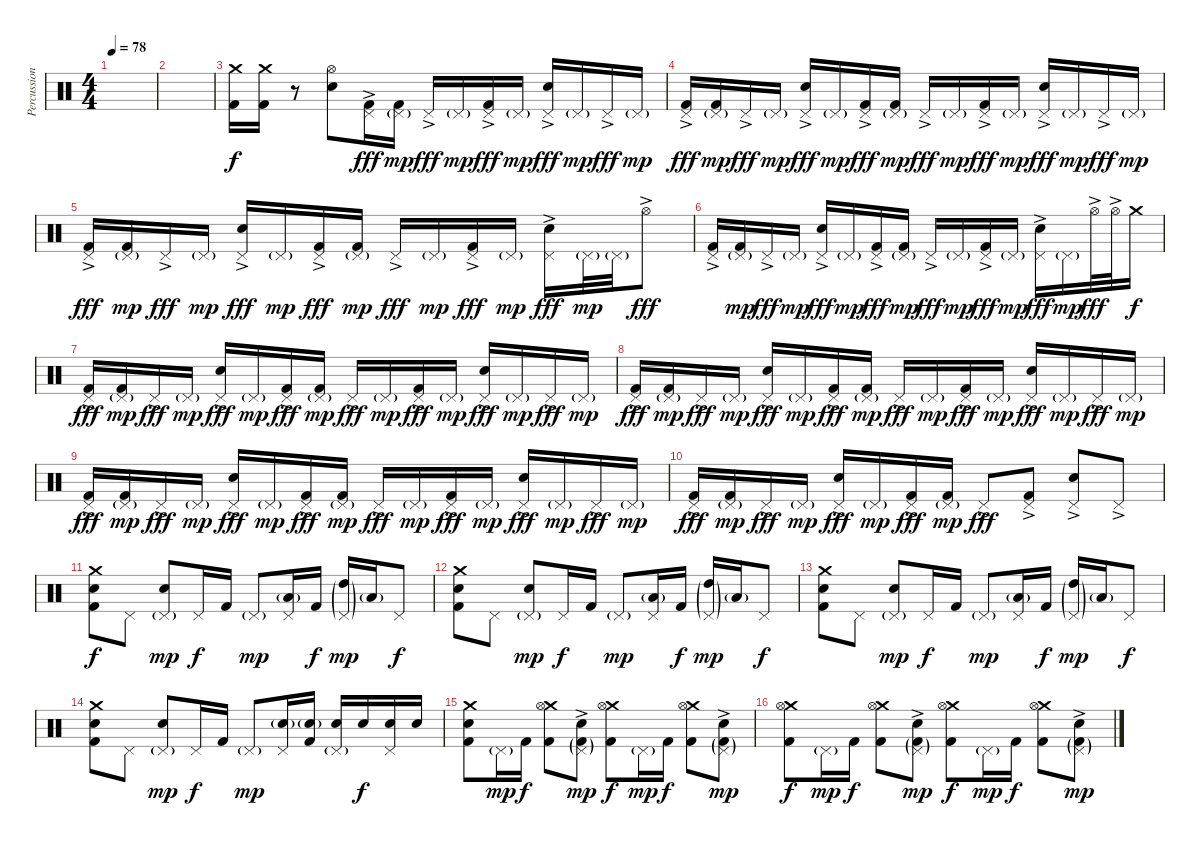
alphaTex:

\track ("Percussions" "Percussion") {instrument percussion}
\staff {score}
\articulation defaults
\ts (4 4)
\tempo 78
\clef neutral
\ks c
|
|
("Crash medium (hit)" "Kick (hit) 2").16 ("Crash medium (hit)" "Kick (hit) 2").16 r.8 ("Hi-Hat (open)" "Electric Snare (hit)").8 ("Pedal Hi-Hat (hit)"{ac} "Kick (hit) 2").16{dy fff} ("Pedal Hi-Hat (hit)"{g} "Kick (hit) 2").16{dy mp} "Pedal Hi-Hat (hit)"{ac}.16{dy fff} "Pedal Hi-Hat (hit)"{g}.16{dy mp} ("Pedal Hi-Hat (hit)"{ac} "Kick (hit) 2").16{dy fff} "Pedal Hi-Hat (hit)"{g}.16{dy mp} ("Pedal Hi-Hat (hit)"{ac} "Electric Snare (hit)").16{dy fff} "Pedal Hi-Hat (hit)"{g}.16{dy mp} "Pedal Hi-Hat (hit)"{ac}.16{dy fff} "Pedal Hi-Hat (hit)"{g}.16{dy mp} |
("Pedal Hi-Hat (hit)"{ac} "Kick (hit) 2").16{dy fff} ("Pedal Hi-Hat (hit)"{g} "Kick (hit) 2").16{dy mp} "Pedal Hi-Hat (hit)"{ac}.16{dy fff} "Pedal Hi-Hat (hit)"{g}.16{dy mp} ("Pedal Hi-Hat (hit)"{ac} "Electric Snare (hit)").16{dy fff} "Pedal Hi-Hat (hit)"{g}.16{dy mp} ("Pedal Hi-Hat (hit)"{ac} "Kick (hit) 2").16{dy fff} ("Pedal Hi-Hat (hit)"{g} "Kick (hit) 2").16{dy mp} "Pedal Hi-Hat (hit)"{ac}.16{dy fff} "Pedal Hi-Hat (hit)"{g}.16{dy mp} ("Pedal Hi-Hat (hit)"{ac} "Kick (hit) 2").16{dy fff} "Pedal Hi-Hat (hit)"{g}.16{dy mp} ("Pedal Hi-Hat (hit)"{ac} "Electric Snare (hit)").16{dy fff} "Pedal Hi-Hat (hit)"{g}.16{dy mp} "Pedal Hi-Hat (hit)"{ac}.16{dy fff} "Pedal Hi-Hat (hit)"{g}.16{dy mp} |
("Pedal Hi-Hat (hit)"{ac} "Kick (hit) 2").16{dy fff} ("Pedal Hi-Hat (hit)"{g} "Kick (hit) 2").16{dy mp} "Pedal Hi-Hat (hit)"{ac}.16{dy fff} "Pedal Hi-Hat (hit)"{g}.16{dy mp} ("Pedal Hi-Hat (hit)"{ac} "Electric Snare (hit)").16{dy fff} "Pedal Hi-Hat (hit)"{g}.16{dy mp} ("Pedal Hi-Hat (hit)"{ac} "Kick (hit) 2").16{dy fff} ("Pedal Hi-Hat (hit)"{g} "Kick (hit) 2").16{dy mp} "Pedal Hi-Hat (hit)"{ac}.16{dy fff} "Pedal Hi-Hat (hit)"{g}.16{dy mp} ("Pedal Hi-Hat (hit)"{ac} "Kick (hit) 2").16{dy fff} "Pedal Hi-Hat (hit)"{g}.16{dy mp} ("Pedal Hi-Hat (hit)"{ac} "Electric Snare (hit)").16{dy fff} "Pedal Hi-Hat (hit)"{g}.32{dy mp} "Pedal Hi-Hat (hit)"{g}.32 "Hi-Hat (open)"{ac}.8{dy fff} |
("Pedal Hi-Hat (hit)"{ac} "Kick (hit) 2").16 ("Pedal Hi-Hat (hit)"{g} "Kick (hit) 2").16{dy mp} "Pedal Hi-Hat (hit)"{ac}.16{dy fff} "Pedal Hi-Hat (hit)"{g}.16{dy mp} ("Pedal Hi-Hat (hit)"{ac} "Electric Snare (hit)").16{dy fff} "Pedal Hi-Hat (hit)"{g}.16{dy mp} ("Pedal Hi-Hat (hit)"{ac} "Kick (hit) 2").16{dy fff} ("Pedal Hi-Hat (hit)"{g} "Kick (hit) 2").16{dy mp} "Pedal Hi-Hat (hit)"{ac}.16{dy fff} "Pedal Hi-Hat (hit)"{g}.16{dy mp} ("Pedal Hi-Hat (hit)"{ac} "Kick (hit) 2").16{dy fff} "Pedal Hi-Hat (hit)"{g}.16{dy mp} ("Pedal Hi-Hat (hit)"{ac} "Electric Snare (hit)").16{dy fff} "Pedal Hi-Hat (hit)"{g}.16{dy mp} "Hi-Hat (open)"{ac}.32{dy fff} "Hi-Hat (open)"{ac}.32 "Crash medium (hit)".16{dy f} |
("Pedal Hi-Hat (hit)"{ac} "Kick (hit) 2").16{dy fff} ("Pedal Hi-Hat (hit)"{g} "Kick (hit) 2").16{dy mp} "Pedal Hi-Hat (hit)"{ac}.16{dy fff} "Pedal Hi-Hat (hit)"{g}.16{dy mp} ("Pedal Hi-Hat (hit)"{ac} "Electric Snare (hit)").16{dy fff} "Pedal Hi-Hat (hit)"{g}.16{dy mp} ("Pedal Hi-Hat (hit)"{ac} "Kick (hit) 2").16{dy fff} ("Pedal Hi-Hat (hit)"{g} "Kick (hit) 2").16{dy mp} "Pedal Hi-Hat (hit)"{ac}.16{dy fff} "Pedal Hi-Hat (hit)"{g}.16{dy mp} ("Pedal Hi-Hat (hit)"{ac} "Kick (hit) 2").16{dy fff} "Pedal Hi-Hat (hit)"{g}.16{dy mp} ("Pedal Hi-Hat (hit)"{ac} "Electric Snare (hit)").16{dy fff} "Pedal Hi-Hat (hit)"{g}.16{dy mp} "Pedal Hi-Hat (hit)"{ac}.16{dy fff} "Pedal Hi-Hat (hit)"{g}.16{dy mp} |
("Pedal Hi-Hat (hit)"{ac} "Kick (hit) 2").16{dy fff} ("Pedal Hi-Hat (hit)"{g} "Kick (hit) 2").16{dy mp} "Pedal Hi-Hat (hit)"{ac}.16{dy fff} "Pedal Hi-Hat (hit)"{g}.16{dy mp} ("Pedal Hi-Hat (hit)"{ac} "Electric Snare (hit)").16{dy fff} "Pedal Hi-Hat (hit)"{g}.16{dy mp} ("Pedal Hi-Hat (hit)"{ac} "Kick (hit) 2").16{dy fff} ("Pedal Hi-Hat (hit)"{g} "Kick (hit) 2").16{dy mp} "Pedal Hi-Hat (hit)"{ac}.16{dy fff} "Pedal Hi-Hat (hit)"{g}.16{dy mp} ("Pedal Hi-Hat (hit)"{ac} "Kick (hit) 2").16{dy fff} "Pedal Hi-Hat (hit)"{g}.16{dy mp} ("Pedal Hi-Hat (hit)"{ac} "Electric Snare (hit)").16{dy fff} "Pedal Hi-Hat (hit)"{g}.16{dy mp} "Pedal Hi-Hat (hit)"{ac}.16{dy fff} "Pedal Hi-Hat (hit)"{g}.16{dy mp} |
("Pedal Hi-Hat (hit)"{ac} "Kick (hit) 2").16{dy fff} ("Pedal Hi-Hat (hit)"{g} "Kick (hit) 2").16{dy mp} "Pedal Hi-Hat (hit)"{ac}.16{dy fff} "Pedal Hi-Hat (hit)"{g}.16{dy mp} ("Pedal Hi-Hat (hit)"{ac} "Electric Snare (hit)").16{dy fff} "Pedal Hi-Hat (hit)"{g}.16{dy mp} ("Pedal Hi-Hat (hit)"{ac} "Kick (hit) 2").16{dy fff} ("Pedal Hi-Hat (hit)"{g} "Kick (hit) 2").16{dy mp} "Pedal Hi-Hat (hit)"{ac}.16{dy fff} "Pedal Hi-Hat (hit)"{g}.16{dy mp} ("Pedal Hi-Hat (hit)"{ac} "Kick (hit) 2").16{dy fff} "Pedal Hi-Hat (hit)"{g}.16{dy mp} ("Pedal Hi-Hat (hit)"{ac} "Electric Snare (hit)").16{dy fff} "Pedal Hi-Hat (hit)"{g}.16{dy mp} "Pedal Hi-Hat (hit)"{ac}.16{dy fff} "Pedal Hi-Hat (hit)"{g}.16{dy mp} |
("Pedal Hi-Hat (hit)"{ac} "Kick (hit) 2").16{dy fff} ("Pedal Hi-Hat (hit)"{g} "Kick (hit) 2").16{dy mp} "Pedal Hi-Hat (hit)"{ac}.16{dy fff} "Pedal Hi-Hat (hit)"{g}.16{dy mp} ("Pedal Hi-Hat (hit)"{ac} "Electric Snare (hit)").16{dy fff} "Pedal Hi-Hat (hit)"{g}.16{dy mp} ("Pedal Hi-Hat (hit)"{ac} "Kick (hit) 2").16{dy fff} ("Pedal Hi-Hat (hit)"{g} "Kick (hit) 2").16{dy mp} "Pedal Hi-Hat (hit)"{ac}.8{dy fff} ("Pedal Hi-Hat (hit)"{ac} "Kick (hit) 2").8 ("Pedal Hi-Hat (hit)"{ac} "Electric Snare (hit)").8 "Pedal Hi-Hat (hit)"{ac}.8 |
("Crash medium (hit)" "Electric Snare (hit)" "Kick (hit) 2").8{dy f} "Pedal Hi-Hat (hit)".8 ("Pedal Hi-Hat (hit)"{g} "Electric Snare (hit)").8{dy mp} "Pedal Hi-Hat (hit)".16{dy f} "Kick (hit) 2".16 "Pedal Hi-Hat (hit)"{g}.8{dy mp} ("Pedal Hi-Hat (hit)" "Low Tom (hit)"{g}).16 "Kick (hit) 2".16{dy f} ("Pedal Hi-Hat (hit)"{g} "High Tom (hit)"{g}).16{dy mp} "Low Tom (hit)"{g}.16 "Pedal Hi-Hat (hit)".8{dy f} |
("Crash medium (hit)" "Electric Snare (hit)" "Kick (hit) 2").8 "Pedal Hi-Hat (hit)".8 ("Pedal Hi-Hat (hit)"{g} "Electric Snare (hit)").8{dy mp} "Pedal Hi-Hat (hit)".16{dy f} "Kick (hit) 2".16 "Pedal Hi-Hat (hit)"{g}.8{dy mp} ("Pedal Hi-Hat (hit)" "Low Tom (hit)"{g}).16 "Kick (hit) 2".16{dy f} ("Pedal Hi-Hat (hit)"{g} "High Tom (hit)"{g}).16{dy mp} "Low Tom (hit)"{g}.16 "Pedal Hi-Hat (hit)".8{dy f} |
("Crash medium (hit)" "Electric Snare (hit)" "Kick (hit) 2").8 "Pedal Hi-Hat (hit)".8 ("Pedal Hi-Hat (hit)"{g} "Electric Snare (hit)").8{dy mp} "Pedal Hi-Hat (hit)".16{dy f} "Kick (hit) 2".16 "Pedal Hi-Hat (hit)"{g}.8{dy mp} ("Pedal Hi-Hat (hit)" "Low Tom (hit)"{g}).16 "Kick (hit) 2".16{dy f} ("Pedal Hi-Hat (hit)"{g} "High Tom (hit)"{g}).16{dy mp} "Low Tom (hit)"{g}.16 "Pedal Hi-Hat (hit)".8{dy f} |
("Crash medium (hit)" "Electric Snare (hit)" "Kick (hit) 2").8 "Pedal Hi-Hat (hit)".8 ("Pedal Hi-Hat (hit)"{g} "Electric Snare (hit)").8{dy mp} "Pedal Hi-Hat (hit)".16{dy f} "Kick (hit) 2".16 "Pedal Hi-Hat (hit)"{g}.8{dy mp} ("Pedal Hi-Hat (hit)" "Electric Snare (hit)"{g}).16 ("Electric Snare (hit)"{g} "Kick (hit) 2").16 ("Pedal Hi-Hat (hit)"{g} "Electric Snare (hit)").16 "Electric Snare (hit)".16{dy f} ("Pedal Hi-Hat (hit)" "Electric Snare (hit)").16 "Electric Snare (hit)".16 |
("Crash medium (hit)" "Electric Snare (hit)" "Kick (hit) 2").8 "Pedal Hi-Hat (hit)"{g}.16{dy mp} "Kick (hit) 2".16{dy f} ("Crash medium (hit)" "Hi-Hat (open)" "Kick (hit) 2").8 ("Pedal Hi-Hat (hit)"{g} "Electric Snare (hit)"{ac} "Kick (hit) 2"{g}).8{dy mp} ("Crash medium (hit)" "Hi-Hat (open)" "Kick (hit) 2").8{dy f} "Pedal Hi-Hat (hit)"{g}.16{dy mp} "Kick (hit) 2".16{dy f} ("Crash medium (hit)" "Hi-Hat (open)" "Kick (hit) 2").8 ("Pedal Hi-Hat (hit)"{g} "Electric Snare (hit)"{ac} "Kick (hit) 2"{g}).8{dy mp} |
("Crash medium (hit)" "Hi-Hat (open)" "Kick (hit) 2").8{dy f} "Pedal Hi-Hat (hit)"{g}.16{dy mp} "Kick (hit) 2".16{dy f} ("Crash medium (hit)" "Hi-Hat (open)" "Kick (hit) 2").8 ("Pedal Hi-Hat (hit)"{g} "Electric Snare (hit)"{ac} "Kick (hit) 2"{g}).8{dy mp} ("Crash medium (hit)" "Hi-Hat (open)" "Kick (hit) 2").8{dy f} "Pedal Hi-Hat (hit)"{g}.16{dy mp} "Kick (hit) 2".16{dy f} ("Crash medium (hit)" "Hi-Hat (open)" "Kick (hit) 2").8 ("Pedal Hi-Hat (hit)"{g} "Electric Snare (hit)"{ac} "Kick (hit) 2"{g}).8{dy mp}
